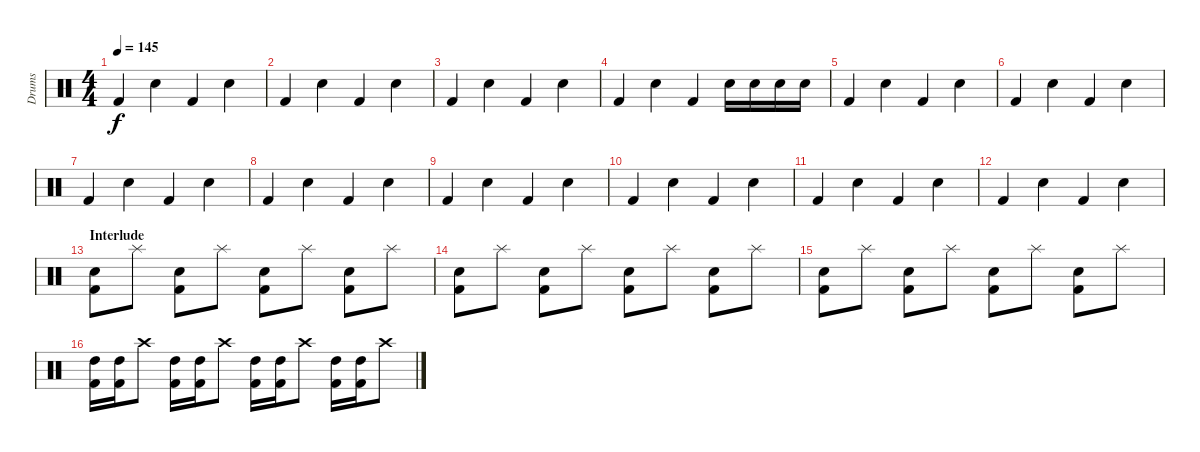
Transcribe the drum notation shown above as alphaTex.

\track ("Drums" "Drums") {instrument percussion}
\staff {score}
\articulation defaults
\ts (4 4)
\tempo 145
\clef neutral
\ks c "Kick (hit) 2".4{dy f} "Snare (hit) 2".4 "Kick (hit) 2".4 "Snare (hit) 2".4
|
"Kick (hit) 2".4 "Snare (hit) 2".4 "Kick (hit) 2".4 "Snare (hit) 2".4 |
"Kick (hit) 2".4 "Snare (hit) 2".4 "Kick (hit) 2".4 "Snare (hit) 2".4 |
"Kick (hit) 2".4 "Snare (hit) 2".4 "Kick (hit) 2".4 "Snare (hit) 2".16 "Snare (hit) 2".16 "Snare (hit) 2".16 "Snare (hit) 2".16 |
"Kick (hit) 2".4 "Snare (hit) 2".4 "Kick (hit) 2".4 "Snare (hit) 2".4 |
"Kick (hit) 2".4 "Snare (hit) 2".4 "Kick (hit) 2".4 "Snare (hit) 2".4 |
"Kick (hit) 2".4 "Snare (hit) 2".4 "Kick (hit) 2".4 "Snare (hit) 2".4 |
"Kick (hit) 2".4 "Snare (hit) 2".4 "Kick (hit) 2".4 "Snare (hit) 2".4 |
"Kick (hit) 2".4 "Snare (hit) 2".4 "Kick (hit) 2".4 "Snare (hit) 2".4 |
"Kick (hit) 2".4 "Snare (hit) 2".4 "Kick (hit) 2".4 "Snare (hit) 2".4 |
"Kick (hit) 2".4 "Snare (hit) 2".4 "Kick (hit) 2".4 "Snare (hit) 2".4 |
"Kick (hit) 2".4 "Snare (hit) 2".4 "Kick (hit) 2".4 "Snare (hit) 2".4 |
\section ("" "Interlude")
("Electric Snare (hit)" "Kick (hit) 2").8 "Splash (hit)".8 ("Electric Snare (hit)" "Kick (hit) 2").8 "Splash (hit)".8 ("Electric Snare (hit)" "Kick (hit) 2").8 "Splash (hit)".8 ("Electric Snare (hit)" "Kick (hit) 2").8 "Splash (hit)".8 |
("Electric Snare (hit)" "Kick (hit) 2").8 "Splash (hit)".8 ("Electric Snare (hit)" "Kick (hit) 2").8 "Splash (hit)".8 ("Electric Snare (hit)" "Kick (hit) 2").8 "Splash (hit)".8 ("Electric Snare (hit)" "Kick (hit) 2").8 "Splash (hit)".8 |
("Electric Snare (hit)" "Kick (hit) 2").8 "Splash (hit)".8 ("Electric Snare (hit)" "Kick (hit) 2").8 "Splash (hit)".8 ("Electric Snare (hit)" "Kick (hit) 2").8 "Splash (hit)".8 ("Electric Snare (hit)" "Kick (hit) 2").8 "Splash (hit)".8 |
("High Tom (hit)" "Kick (hit) 2").16 ("High Tom (hit)" "Kick (hit) 2").16 "Crash high (hit)".8 ("High Tom (hit)" "Kick (hit) 2").16 ("High Tom (hit)" "Kick (hit) 2").16 "Crash high (hit)".8 ("High Tom (hit)" "Kick (hit) 2").16 ("High Tom (hit)" "Kick (hit) 2").16 "Crash high (hit)".8 ("High Tom (hit)" "Kick (hit) 2").16 ("High Tom (hit)" "Kick (hit) 2").16 "Crash high (hit)".8
